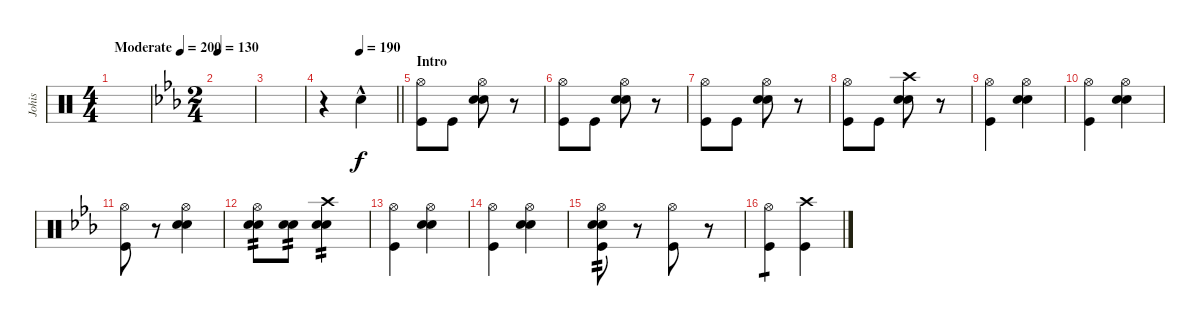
\track ("Johis" "Johis") {instrument percussion}
\staff {score}
\articulation defaults
\ts (4 4)
\tempo (200 "Moderate")
\clef neutral
\ks c
|
\ts (2 4)
\tempo 130
\ks eb
|
|
\tempo (190 0.5)
\barLineRight lightlight
r.4 "Snare (hit) 2"{hac}.4 |
\section ("" "Intro")
("Hi-Hat (open)" "Kick (hit)").8{dy f} "Kick (hit)".8 ("Hi-Hat (open)" "Electric Snare (hit)" "Snare (hit) 2").8 r.8 |
("Hi-Hat (open)" "Kick (hit)").8 "Kick (hit)".8 ("Hi-Hat (open)" "Electric Snare (hit)" "Snare (hit) 2").8 r.8 |
("Hi-Hat (open)" "Kick (hit)").8 "Kick (hit)".8 ("Hi-Hat (open)" "Electric Snare (hit)" "Snare (hit) 2").8 r.8 |
("Hi-Hat (open)" "Kick (hit)").8 "Kick (hit)".8 ("Crash high (hit)" "Electric Snare (hit)" "Snare (hit) 2").8 r.8 |
("Hi-Hat (open)" "Kick (hit)").4 ("Hi-Hat (open)" "Electric Snare (hit)" "Snare (hit) 2").4 |
("Hi-Hat (open)" "Kick (hit)").4 ("Hi-Hat (open)" "Electric Snare (hit)" "Snare (hit) 2").4 |
("Hi-Hat (open)" "Kick (hit)").8 r.8 ("Hi-Hat (open)" "Electric Snare (hit)" "Snare (hit) 2").4 |
("Hi-Hat (open)" "Electric Snare (hit)" "Snare (hit) 2").8{tp 2} ("Electric Snare (hit)" "Snare (hit) 2").8{tp 2} ("Crash high (hit)" "Electric Snare (hit)" "Snare (hit) 2").4{tp 2} |
("Hi-Hat (open)" "Kick (hit)").4 ("Hi-Hat (open)" "Electric Snare (hit)" "Snare (hit) 2").4 |
("Hi-Hat (open)" "Kick (hit)").4 ("Hi-Hat (open)" "Electric Snare (hit)" "Snare (hit) 2").4 |
("Hi-Hat (open)" "Snare (hit) 2" "Kick (hit)" "Electric Snare (hit)").8{tp 2} r.8 ("Hi-Hat (open)" "Kick (hit)").8 r.8 |
("Hi-Hat (open)" "Kick (hit)").4{tp 1} ("Crash high (hit)" "Kick (hit)").4
